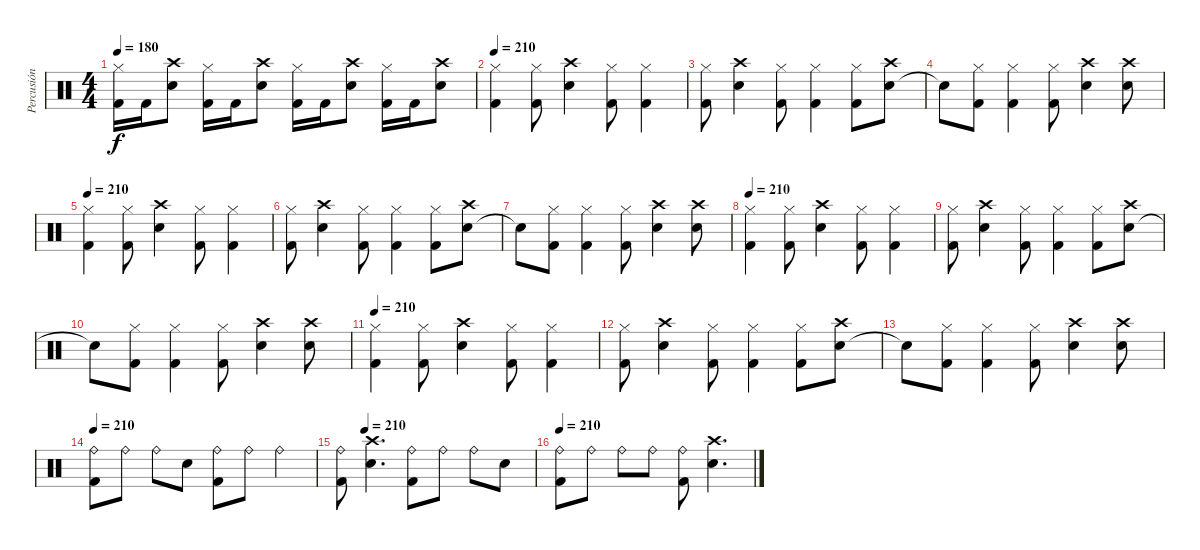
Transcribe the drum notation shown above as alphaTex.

\track ("Percusión" "Percusión") {instrument percussion}
\staff {score}
\articulation defaults
\ts (4 4)
\tempo 180
\clef neutral
\ks c
("Kick (hit) 2" "Hi-Hat (closed)").16{dy f} "Kick (hit) 2".16 ("Snare (hit) 2" "Crash high (hit)").8 ("Kick (hit) 2" "Hi-Hat (closed)").16 "Kick (hit) 2".16 ("Snare (hit) 2" "Crash high (hit)").8 ("Kick (hit) 2" "Hi-Hat (closed)").16 "Kick (hit) 2".16 ("Snare (hit) 2" "Crash high (hit)").8 ("Kick (hit) 2" "Hi-Hat (closed)").16 "Kick (hit) 2".16 ("Snare (hit) 2" "Crash high (hit)").8 |
\tempo 210
("Kick (hit) 2" "Hi-Hat (closed)").4 ("Kick (hit) 2" "Hi-Hat (closed)").8 ("Snare (hit) 2" "Crash high (hit)").4 ("Kick (hit) 2" "Hi-Hat (closed)").8 ("Kick (hit) 2" "Hi-Hat (closed)").4 |
("Kick (hit) 2" "Hi-Hat (closed)").8 ("Snare (hit) 2" "Crash high (hit)").4 ("Kick (hit) 2" "Hi-Hat (closed)").8 ("Kick (hit) 2" "Hi-Hat (closed)").4 ("Kick (hit) 2" "Hi-Hat (closed)").8 ("Snare (hit) 2" "Crash high (hit)").8 |
"Snare (hit)"{t}.8 ("Kick (hit) 2" "Hi-Hat (closed)").8 ("Kick (hit) 2" "Hi-Hat (closed)").4 ("Kick (hit) 2" "Hi-Hat (closed)").8 ("Snare (hit) 2" "Crash high (hit)").4 ("Snare (hit) 2" "Crash high (hit)").8 |
\tempo 210
("Kick (hit) 2" "Hi-Hat (closed)").4 ("Kick (hit) 2" "Hi-Hat (closed)").8 ("Snare (hit) 2" "Crash high (hit)").4 ("Kick (hit) 2" "Hi-Hat (closed)").8 ("Kick (hit) 2" "Hi-Hat (closed)").4 |
("Kick (hit) 2" "Hi-Hat (closed)").8 ("Snare (hit) 2" "Crash high (hit)").4 ("Kick (hit) 2" "Hi-Hat (closed)").8 ("Kick (hit) 2" "Hi-Hat (closed)").4 ("Kick (hit) 2" "Hi-Hat (closed)").8 ("Snare (hit) 2" "Crash high (hit)").8 |
"Snare (hit)"{t}.8 ("Kick (hit) 2" "Hi-Hat (closed)").8 ("Kick (hit) 2" "Hi-Hat (closed)").4 ("Kick (hit) 2" "Hi-Hat (closed)").8 ("Snare (hit) 2" "Crash high (hit)").4 ("Snare (hit) 2" "Crash high (hit)").8 |
\tempo 210
("Kick (hit) 2" "Hi-Hat (closed)").4 ("Kick (hit) 2" "Hi-Hat (closed)").8 ("Snare (hit) 2" "Crash high (hit)").4 ("Kick (hit) 2" "Hi-Hat (closed)").8 ("Kick (hit) 2" "Hi-Hat (closed)").4 |
("Kick (hit) 2" "Hi-Hat (closed)").8 ("Snare (hit) 2" "Crash high (hit)").4 ("Kick (hit) 2" "Hi-Hat (closed)").8 ("Kick (hit) 2" "Hi-Hat (closed)").4 ("Kick (hit) 2" "Hi-Hat (closed)").8 ("Snare (hit) 2" "Crash high (hit)").8 |
"Snare (hit)"{t}.8 ("Kick (hit) 2" "Hi-Hat (closed)").8 ("Kick (hit) 2" "Hi-Hat (closed)").4 ("Kick (hit) 2" "Hi-Hat (closed)").8 ("Snare (hit) 2" "Crash high (hit)").4 ("Snare (hit) 2" "Crash high (hit)").8 |
\tempo 210
("Kick (hit) 2" "Hi-Hat (closed)").4 ("Kick (hit) 2" "Hi-Hat (closed)").8 ("Snare (hit) 2" "Crash high (hit)").4 ("Kick (hit) 2" "Hi-Hat (closed)").8 ("Kick (hit) 2" "Hi-Hat (closed)").4 |
("Kick (hit) 2" "Hi-Hat (closed)").8 ("Snare (hit) 2" "Crash high (hit)").4 ("Kick (hit) 2" "Hi-Hat (closed)").8 ("Kick (hit) 2" "Hi-Hat (closed)").4 ("Kick (hit) 2" "Hi-Hat (closed)").8 ("Snare (hit) 2" "Crash high (hit)").8 |
"Snare (hit)"{t}.8 ("Kick (hit) 2" "Hi-Hat (closed)").8 ("Kick (hit) 2" "Hi-Hat (closed)").4 ("Kick (hit) 2" "Hi-Hat (closed)").8 ("Snare (hit) 2" "Crash high (hit)").4 ("Snare (hit) 2" "Crash high (hit)").8 |
\tempo 210
("Kick (hit) 2" "Ride (bell)").8 "Ride (bell)".8 "Ride (bell)".8 "Snare (hit) 2".8 ("Kick (hit) 2" "Ride (bell)").8 "Ride (bell)".8 "Ride (bell)".4 |
\tempo (210 0.125)
("Kick (hit) 2" "Ride (bell)").8 ("Snare (hit) 2" "Crash high (hit)").4{d} ("Kick (hit) 2" "Ride (bell)").8 "Ride (bell)".8 "Ride (bell)".8 "Snare (hit) 2".8 |
\tempo 210
("Kick (hit) 2" "Ride (bell)").8 "Ride (bell)".8 "Ride (bell)".8 "Ride (bell)".8 ("Kick (hit) 2" "Ride (bell)").8 ("Snare (hit) 2" "Crash high (hit)").4{d}
